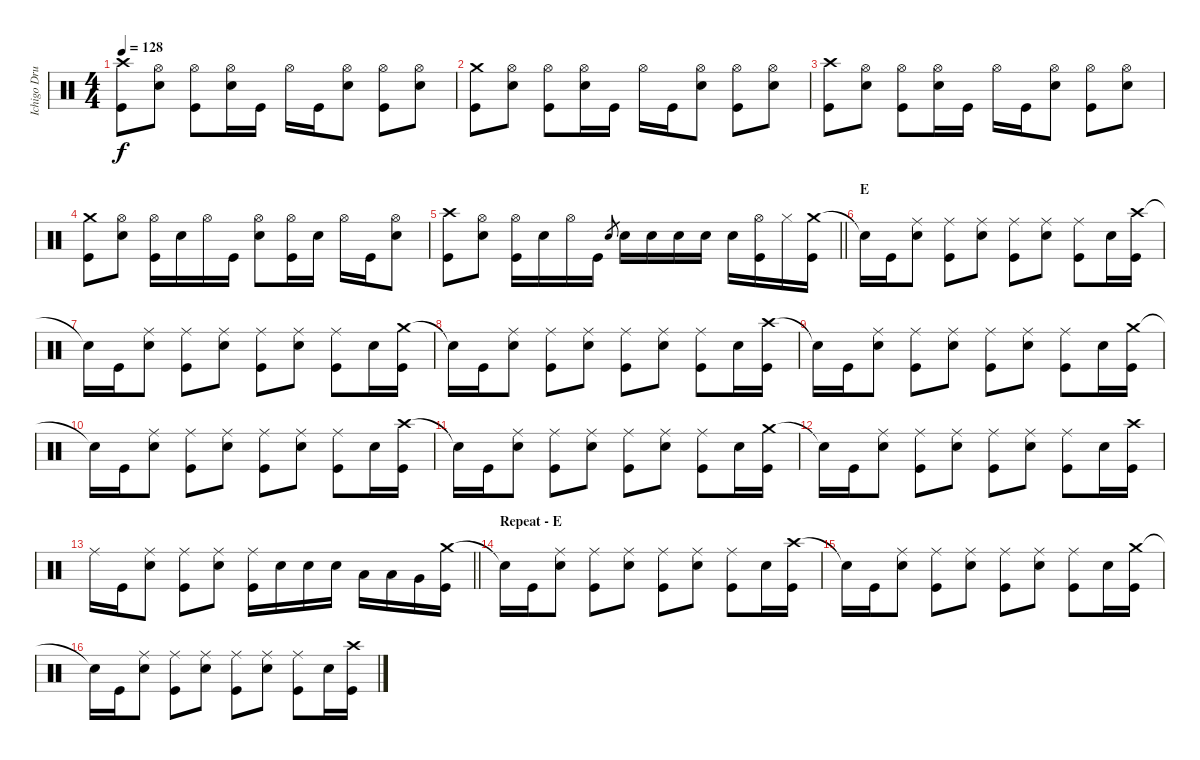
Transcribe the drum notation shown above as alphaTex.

\track ("Ichigo Drums" "Ichigo Dru") {instrument percussion}
\staff {score}
\articulation defaults
\ts (4 4)
\tempo 128
\clef neutral
\ks c
("Crash high (hit)" "Kick (hit)").8{dy f} ("Hi-Hat (open)" "Snare (hit) 2").8 ("Hi-Hat (open)" "Kick (hit)").8 ("Hi-Hat (open)" "Snare (hit) 2").16 "Kick (hit)".16 "Hi-Hat (open)".16 "Kick (hit)".16 ("Hi-Hat (open)" "Snare (hit) 2").8 ("Hi-Hat (open)" "Kick (hit)").8 ("Hi-Hat (open)" "Snare (hit) 2").8 |
("Crash medium (hit)" "Kick (hit)").8 ("Hi-Hat (open)" "Snare (hit) 2").8 ("Hi-Hat (open)" "Kick (hit)").8 ("Hi-Hat (open)" "Snare (hit) 2").16 "Kick (hit)".16 "Hi-Hat (open)".16 "Kick (hit)".16 ("Hi-Hat (open)" "Snare (hit) 2").8 ("Hi-Hat (open)" "Kick (hit)").8 ("Hi-Hat (open)" "Snare (hit) 2").8 |
("Crash high (hit)" "Kick (hit)").8 ("Hi-Hat (open)" "Snare (hit) 2").8 ("Hi-Hat (open)" "Kick (hit)").8 ("Hi-Hat (open)" "Snare (hit) 2").16 "Kick (hit)".16 "Hi-Hat (open)".16 "Kick (hit)".16 ("Hi-Hat (open)" "Snare (hit) 2").8 ("Hi-Hat (open)" "Kick (hit)").8 ("Hi-Hat (open)" "Snare (hit) 2").8 |
("Crash medium (hit)" "Kick (hit)").8 ("Hi-Hat (open)" "Snare (hit) 2").8 ("Hi-Hat (open)" "Kick (hit)").16 "Snare (hit) 2".16 "Hi-Hat (open)".16 "Kick (hit)".16 ("Hi-Hat (open)" "Snare (hit) 2").8 ("Hi-Hat (open)" "Kick (hit)").16 "Snare (hit) 2".16 "Hi-Hat (open)".16 "Kick (hit)".16 ("Hi-Hat (open)" "Snare (hit) 2").8 |
\barLineRight lightlight
("Crash high (hit)" "Kick (hit)").8 ("Hi-Hat (open)" "Snare (hit) 2").8 ("Hi-Hat (open)" "Kick (hit)").16 "Snare (hit) 2".16 "Hi-Hat (open)".16 "Kick (hit)".16 "Snare (hit) 2".8{gr} "Snare (hit) 2".16 "Snare (hit) 2".16 "Snare (hit) 2".16 "Snare (hit) 2".16 "Snare (hit) 2".16 ("Hi-Hat (open)" "Kick (hit)").16 "Hi-Hat (closed)".16 ("Crash medium (hit)" "Kick (hit)").16 |
\section ("" "E")
"Snare (hit)"{t}.16 "Kick (hit)".16 ("Ride (middle)" "Snare (hit) 2").8 ("Ride (middle)" "Kick (hit)").8 ("Ride (middle)" "Snare (hit) 2").8 ("Ride (middle)" "Kick (hit)").8 ("Ride (middle)" "Snare (hit) 2").8 ("Ride (middle)" "Kick (hit)").8 "Snare (hit) 2".16 ("Crash high (hit)" "Kick (hit)").16 |
"Snare (hit)"{t}.16 "Kick (hit)".16 ("Ride (middle)" "Snare (hit) 2").8 ("Ride (middle)" "Kick (hit)").8 ("Ride (middle)" "Snare (hit) 2").8 ("Ride (middle)" "Kick (hit)").8 ("Ride (middle)" "Snare (hit) 2").8 ("Ride (middle)" "Kick (hit)").8 "Snare (hit) 2".16 ("Crash medium (hit)" "Kick (hit)").16 |
"Snare (hit)"{t}.16 "Kick (hit)".16 ("Ride (middle)" "Snare (hit) 2").8 ("Ride (middle)" "Kick (hit)").8 ("Ride (middle)" "Snare (hit) 2").8 ("Ride (middle)" "Kick (hit)").8 ("Ride (middle)" "Snare (hit) 2").8 ("Ride (middle)" "Kick (hit)").8 "Snare (hit) 2".16 ("Crash high (hit)" "Kick (hit)").16 |
"Snare (hit)"{t}.16 "Kick (hit)".16 ("Ride (middle)" "Snare (hit) 2").8 ("Ride (middle)" "Kick (hit)").8 ("Ride (middle)" "Snare (hit) 2").8 ("Ride (middle)" "Kick (hit)").8 ("Ride (middle)" "Snare (hit) 2").8 ("Ride (middle)" "Kick (hit)").8 "Snare (hit) 2".16 ("Crash medium (hit)" "Kick (hit)").16 |
"Snare (hit)"{t}.16 "Kick (hit)".16 ("Ride (middle)" "Snare (hit) 2").8 ("Ride (middle)" "Kick (hit)").8 ("Ride (middle)" "Snare (hit) 2").8 ("Ride (middle)" "Kick (hit)").8 ("Ride (middle)" "Snare (hit) 2").8 ("Ride (middle)" "Kick (hit)").8 "Snare (hit) 2".16 ("Crash high (hit)" "Kick (hit)").16 |
"Snare (hit)"{t}.16 "Kick (hit)".16 ("Ride (middle)" "Snare (hit) 2").8 ("Ride (middle)" "Kick (hit)").8 ("Ride (middle)" "Snare (hit) 2").8 ("Ride (middle)" "Kick (hit)").8 ("Ride (middle)" "Snare (hit) 2").8 ("Ride (middle)" "Kick (hit)").8 "Snare (hit) 2".16 ("Crash medium (hit)" "Kick (hit)").16 |
"Snare (hit)"{t}.16 "Kick (hit)".16 ("Ride (middle)" "Snare (hit) 2").8 ("Ride (middle)" "Kick (hit)").8 ("Ride (middle)" "Snare (hit) 2").8 ("Ride (middle)" "Kick (hit)").8 ("Ride (middle)" "Snare (hit) 2").8 ("Ride (middle)" "Kick (hit)").8 "Snare (hit) 2".16 ("Crash high (hit)" "Kick (hit)").16 |
\barLineRight lightlight "Ride (middle)".16 "Kick (hit)".16
("Ride (middle)" "Snare (hit) 2").8 ("Ride (middle)" "Kick (hit)").8 ("Ride (middle)" "Snare (hit) 2").8 ("Ride (middle)" "Kick (hit)").16 "Snare (hit) 2".16 "Snare (hit) 2".16 "Snare (hit) 2".16 "Low Tom (hit)".16 "Low Tom (hit)".16 "Very Low Tom (hit)".16 ("Crash medium (hit)" "Kick (hit)").16 |
\section ("" "Repeat - E")
"Snare (hit)"{t}.16 "Kick (hit)".16 ("Ride (middle)" "Snare (hit) 2").8 ("Ride (middle)" "Kick (hit)").8 ("Ride (middle)" "Snare (hit) 2").8 ("Ride (middle)" "Kick (hit)").8 ("Ride (middle)" "Snare (hit) 2").8 ("Ride (middle)" "Kick (hit)").8 "Snare (hit) 2".16 ("Crash high (hit)" "Kick (hit)").16 |
"Snare (hit)"{t}.16 "Kick (hit)".16 ("Ride (middle)" "Snare (hit) 2").8 ("Ride (middle)" "Kick (hit)").8 ("Ride (middle)" "Snare (hit) 2").8 ("Ride (middle)" "Kick (hit)").8 ("Ride (middle)" "Snare (hit) 2").8 ("Ride (middle)" "Kick (hit)").8 "Snare (hit) 2".16 ("Crash medium (hit)" "Kick (hit)").16 |
"Snare (hit)"{t}.16 "Kick (hit)".16 ("Ride (middle)" "Snare (hit) 2").8 ("Ride (middle)" "Kick (hit)").8 ("Ride (middle)" "Snare (hit) 2").8 ("Ride (middle)" "Kick (hit)").8 ("Ride (middle)" "Snare (hit) 2").8 ("Ride (middle)" "Kick (hit)").8 "Snare (hit) 2".16 ("Crash high (hit)" "Kick (hit)").16
